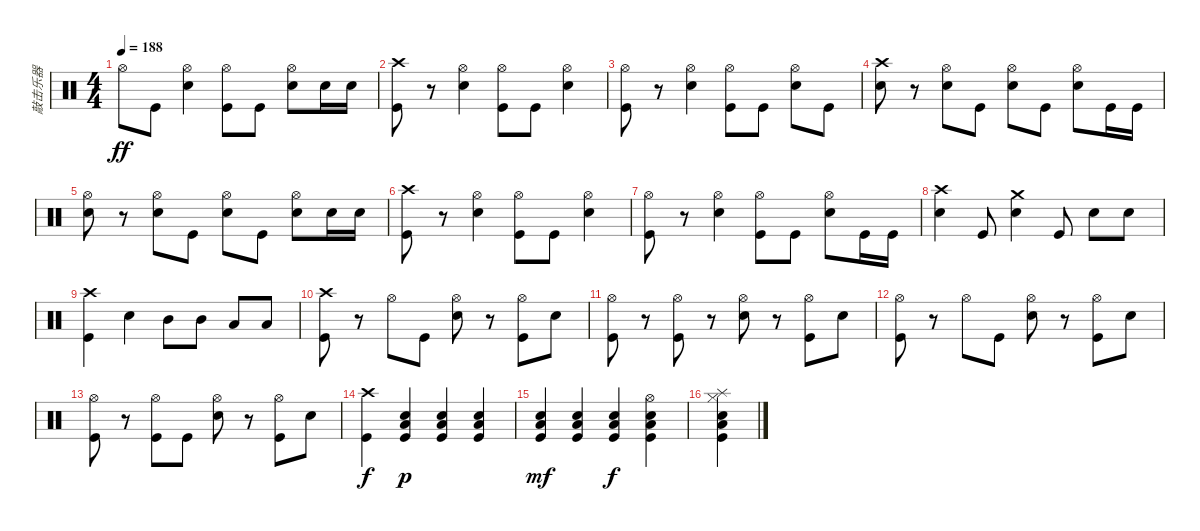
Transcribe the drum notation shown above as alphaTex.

\track ("敲击乐器" "敲击乐器") {instrument percussion}
\staff {score}
\articulation defaults
\ts (4 4)
\tempo 188
\clef neutral
\ks c "Hi-Hat (open)".8{dy ff} "Kick (hit)".8
("Hi-Hat (open)" "Snare (hit) 2").4 ("Hi-Hat (open)" "Kick (hit)").8 "Kick (hit)".8 ("Hi-Hat (open)" "Snare (hit) 2").8 "Snare (hit) 2".16 "Snare (hit) 2".16 |
("Crash high (hit)" "Kick (hit)").8 r.8 ("Hi-Hat (open)" "Snare (hit) 2").4 ("Hi-Hat (open)" "Kick (hit)").8 "Kick (hit)".8 ("Hi-Hat (open)" "Snare (hit) 2").4 |
("Hi-Hat (open)" "Kick (hit)").8 r.8 ("Hi-Hat (open)" "Snare (hit) 2").4 ("Hi-Hat (open)" "Kick (hit)").8 "Kick (hit)".8 ("Hi-Hat (open)" "Snare (hit) 2").8 "Kick (hit)".8 |
("Crash high (hit)" "Snare (hit) 2").8 r.8 ("Hi-Hat (open)" "Snare (hit) 2").8 "Kick (hit)".8 ("Hi-Hat (open)" "Snare (hit) 2").8 "Kick (hit)".8 ("Hi-Hat (open)" "Snare (hit) 2").8 "Kick (hit)".16 "Kick (hit)".16 |
("Hi-Hat (open)" "Snare (hit) 2").8 r.8 ("Hi-Hat (open)" "Snare (hit) 2").8 "Kick (hit)".8 ("Hi-Hat (open)" "Snare (hit) 2").8 "Kick (hit)".8 ("Hi-Hat (open)" "Snare (hit) 2").8 "Snare (hit) 2".16 "Snare (hit) 2".16 |
("Crash high (hit)" "Kick (hit)").8 r.8 ("Hi-Hat (open)" "Snare (hit) 2").4 ("Hi-Hat (open)" "Kick (hit)").8 "Kick (hit)".8 ("Hi-Hat (open)" "Snare (hit) 2").4 |
("Hi-Hat (open)" "Kick (hit)").8 r.8 ("Hi-Hat (open)" "Snare (hit) 2").4 ("Hi-Hat (open)" "Kick (hit)").8 "Kick (hit)".8 ("Hi-Hat (open)" "Snare (hit) 2").8 "Kick (hit)".16 "Kick (hit)".16 |
("Crash high (hit)" "Snare (hit) 2").4 "Kick (hit)".8 ("Crash medium (hit)" "Snare (hit) 2").4 "Kick (hit)".8 "Snare (hit) 2".8 "Snare (hit) 2".8 |
("Crash high (hit)" "Kick (hit)").4 "Snare (hit) 2".4 "Mid Tom (hit)".8 "Mid Tom (hit)".8 "Low Tom (hit)".8 "Low Tom (hit)".8 |
("Crash high (hit)" "Kick (hit)").8 r.8 "Hi-Hat (open)".8 "Kick (hit)".8 ("Hi-Hat (open)" "Snare (hit) 2").8 r.8 ("Hi-Hat (open)" "Kick (hit)").8 "Snare (hit) 2".8 |
("Hi-Hat (open)" "Kick (hit)").8 r.8 ("Hi-Hat (open)" "Kick (hit)").8 r.8 ("Hi-Hat (open)" "Snare (hit) 2").8 r.8 ("Hi-Hat (open)" "Kick (hit)").8 "Snare (hit) 2".8 |
("Hi-Hat (open)" "Kick (hit)").8 r.8 "Hi-Hat (open)".8 "Kick (hit)".8 ("Hi-Hat (open)" "Snare (hit) 2").8 r.8 ("Hi-Hat (open)" "Kick (hit)").8 "Snare (hit) 2".8 |
("Hi-Hat (open)" "Kick (hit)").8 r.8 ("Hi-Hat (open)" "Kick (hit)").8 "Kick (hit)".8 ("Hi-Hat (open)" "Snare (hit) 2").8 r.8 ("Hi-Hat (open)" "Kick (hit)").8 "Snare (hit) 2".8 |
("Crash high (hit)" "Kick (hit)").4{dy f} ("Snare (hit) 2" "Low Tom (hit)" "Kick (hit)").4{dy p} ("Snare (hit) 2" "Low Tom (hit)" "Kick (hit)").4 ("Snare (hit) 2" "Low Tom (hit)" "Kick (hit)").4 |
("Snare (hit) 2" "Low Tom (hit)" "Kick (hit)").4{dy mf} ("Snare (hit) 2" "Low Tom (hit)" "Kick (hit)").4 ("Snare (hit) 2" "Low Tom (hit)" "Kick (hit)").4{dy f} ("Snare (hit) 2" "Low Tom (hit)" "Hi-Hat (open)" "Kick (hit)").4 |
("Snare (hit) 2" "Low Tom (hit)" "Hi-Hat (closed)" "Kick (hit)" "Splash (hit)").4
